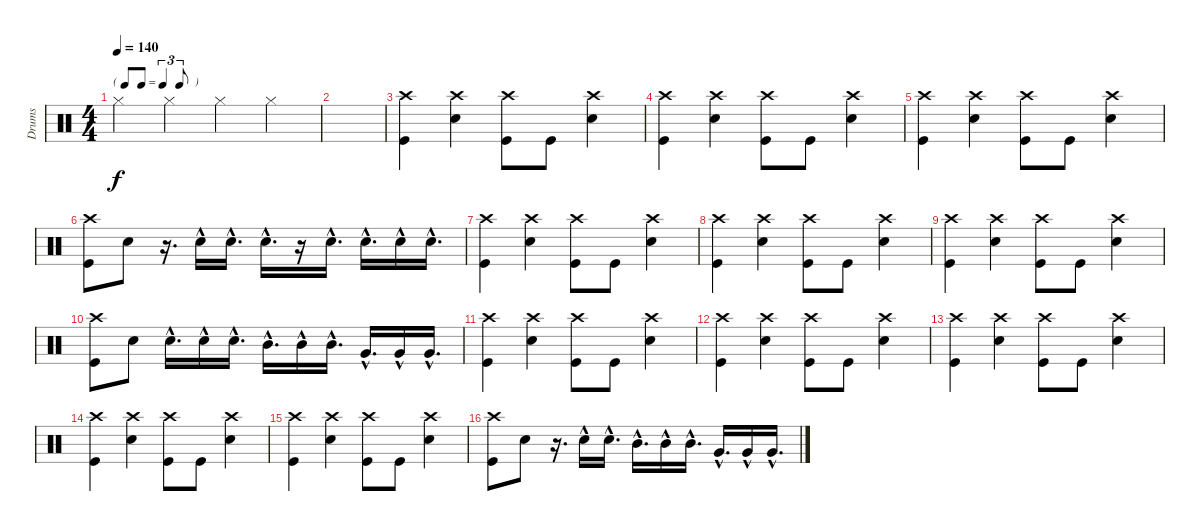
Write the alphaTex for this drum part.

\track ("Drums" "Drums") {instrument percussion}
\staff {score}
\articulation defaults
\ts (4 4)
\tf triplet8th
\tempo 140
\clef neutral
\ks c "Hi-Hat (closed)".4{dy f} "Hi-Hat (closed)".4 "Hi-Hat (closed)".4 "Hi-Hat (closed)".4
|
|
("Crash high (hit)" "Kick (hit)").4 ("Crash high (hit)" "Snare (hit) 2").4 ("Crash high (hit)" "Kick (hit)").8 "Kick (hit)".8 ("Crash high (hit)" "Snare (hit) 2").4 |
("Kick (hit)" "Crash high (hit)").4 ("Crash high (hit)" "Snare (hit) 2").4 ("Crash high (hit)" "Kick (hit)").8 "Kick (hit)".8 ("Crash high (hit)" "Snare (hit) 2").4 |
("Crash high (hit)" "Kick (hit)").4 ("Crash high (hit)" "Snare (hit) 2").4 ("Crash high (hit)" "Kick (hit)").8 "Kick (hit)".8 ("Crash high (hit)" "Snare (hit) 2").4 |
("Crash high (hit)" "Kick (hit)").8 "Snare (hit) 2".8 r.16{d} "Snare (hit) 2"{hac}.16 "Snare (hit) 2"{hac}.16{d} "Snare (hit) 2"{hac}.16{d} r.16 "Snare (hit) 2"{hac}.16{d} "Snare (hit) 2"{hac}.16{d} "Snare (hit) 2"{hac}.16 "Snare (hit) 2"{hac}.16{d} |
("Crash high (hit)" "Kick (hit)").4 ("Crash high (hit)" "Snare (hit) 2").4 ("Crash high (hit)" "Kick (hit)").8 "Kick (hit)".8 ("Crash high (hit)" "Snare (hit) 2").4 |
("Crash high (hit)" "Kick (hit)").4 ("Crash high (hit)" "Snare (hit) 2").4 ("Crash high (hit)" "Kick (hit)").8 "Kick (hit)".8 ("Crash high (hit)" "Snare (hit) 2").4 |
("Kick (hit)" "Crash high (hit)").4 ("Crash high (hit)" "Snare (hit) 2").4 ("Crash high (hit)" "Kick (hit)").8 "Kick (hit)".8 ("Crash high (hit)" "Snare (hit) 2").4 |
("Crash high (hit)" "Kick (hit)").8 "Snare (hit) 2".8 "Snare (hit) 2"{hac}.16{d} "Snare (hit) 2"{hac}.16 "Snare (hit) 2"{hac}.16{d} "Mid Tom (hit)"{hac}.16{d} "Mid Tom (hit)"{hac}.16 "Mid Tom (hit)"{hac}.16{d} "Very Low Tom (hit)"{hac}.16{d} "Very Low Tom (hit)"{hac}.16 "Very Low Tom (hit)"{hac}.16{d} |
("Crash high (hit)" "Kick (hit)").4 ("Crash high (hit)" "Snare (hit) 2").4 ("Crash high (hit)" "Kick (hit)").8 "Kick (hit)".8 ("Crash high (hit)" "Snare (hit) 2").4 |
("Kick (hit)" "Crash high (hit)").4 ("Crash high (hit)" "Snare (hit) 2").4 ("Crash high (hit)" "Kick (hit)").8 "Kick (hit)".8 ("Crash high (hit)" "Snare (hit) 2").4 |
("Kick (hit)" "Crash high (hit)").4 ("Crash high (hit)" "Snare (hit) 2").4 ("Crash high (hit)" "Kick (hit)").8 "Kick (hit)".8 ("Crash high (hit)" "Snare (hit) 2").4 |
("Kick (hit)" "Crash high (hit)").4 ("Crash high (hit)" "Snare (hit) 2").4 ("Crash high (hit)" "Kick (hit)").8 "Kick (hit)".8 ("Crash high (hit)" "Snare (hit) 2").4 |
("Kick (hit)" "Crash high (hit)").4 ("Crash high (hit)" "Snare (hit) 2").4 ("Crash high (hit)" "Kick (hit)").8 "Kick (hit)".8 ("Crash high (hit)" "Snare (hit) 2").4 |
("Kick (hit)" "Crash high (hit)").8 "Snare (hit) 2".8 r.16{d} "Snare (hit) 2"{hac}.16 "Snare (hit) 2"{hac}.16{d} "Mid Tom (hit)"{hac}.16{d} "Mid Tom (hit)"{hac}.16 "Mid Tom (hit)"{hac}.16{d} "Very Low Tom (hit)"{hac}.16{d} "Very Low Tom (hit)"{hac}.16 "Very Low Tom (hit)"{hac}.16{d}
